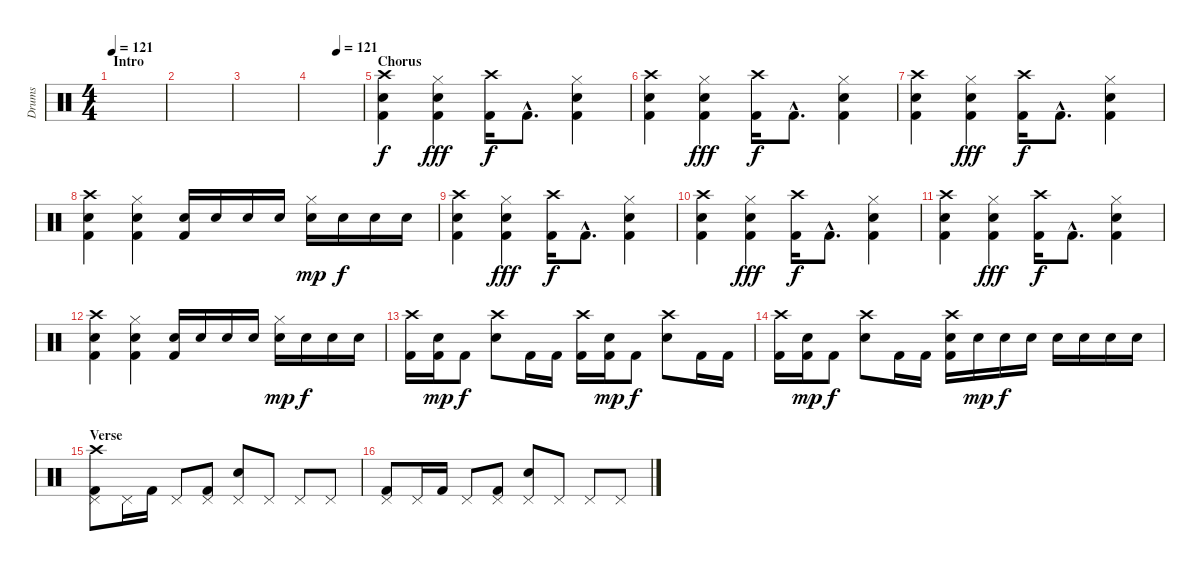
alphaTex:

\track ("Drums" "Drums") {instrument percussion}
\staff {score}
\articulation defaults
\ts (4 4)
\section ("" "Intro")
\tempo 121
\tempo 113
\tempo 121
\clef neutral
\ks c
|
|
|
\tempo (121 0.5)
|
\section ("" "Chorus")
("Crash high (hit)" "Snare (hit) 2" "Kick (hit) 2").4 ("Hi-Hat (closed)" "Snare (hit) 2" "Kick (hit) 2").4{dy fff} ("Crash high (hit)" "Kick (hit) 2").16{dy f} "Kick (hit) 2"{hac}.8{d} ("Hi-Hat (closed)" "Snare (hit) 2" "Kick (hit) 2").4 |
("Crash high (hit)" "Snare (hit) 2" "Kick (hit) 2").4 ("Hi-Hat (closed)" "Snare (hit) 2" "Kick (hit) 2").4{dy fff} ("Crash high (hit)" "Kick (hit) 2").16{dy f} "Kick (hit) 2"{hac}.8{d} ("Hi-Hat (closed)" "Snare (hit) 2" "Kick (hit) 2").4 |
("Crash high (hit)" "Snare (hit) 2" "Kick (hit) 2").4 ("Hi-Hat (closed)" "Snare (hit) 2" "Kick (hit) 2").4{dy fff} ("Crash high (hit)" "Kick (hit) 2").16{dy f} "Kick (hit) 2"{hac}.8{d} ("Hi-Hat (closed)" "Snare (hit) 2" "Kick (hit) 2").4 |
("Crash high (hit)" "Snare (hit) 2" "Kick (hit) 2").4 ("Hi-Hat (closed)" "Snare (hit) 2" "Kick (hit) 2").4 ("Snare (hit) 2" "Kick (hit) 2").16 "Snare (hit) 2".16 "Snare (hit) 2".16 "Snare (hit) 2".16 ("Hi-Hat (closed)" "Snare (hit) 2").16{dy mp} "Snare (hit) 2".16{dy f} "Snare (hit) 2".16 "Snare (hit) 2".16 |
("Crash high (hit)" "Snare (hit) 2" "Kick (hit) 2").4 ("Hi-Hat (closed)" "Snare (hit) 2" "Kick (hit) 2").4{dy fff} ("Crash high (hit)" "Kick (hit) 2").16{dy f} "Kick (hit) 2"{hac}.8{d} ("Hi-Hat (closed)" "Snare (hit) 2" "Kick (hit) 2").4 |
("Crash high (hit)" "Snare (hit) 2" "Kick (hit) 2").4 ("Hi-Hat (closed)" "Snare (hit) 2" "Kick (hit) 2").4{dy fff} ("Crash high (hit)" "Kick (hit) 2").16{dy f} "Kick (hit) 2"{hac}.8{d} ("Hi-Hat (closed)" "Snare (hit) 2" "Kick (hit) 2").4 |
("Crash high (hit)" "Snare (hit) 2" "Kick (hit) 2").4 ("Hi-Hat (closed)" "Snare (hit) 2" "Kick (hit) 2").4{dy fff} ("Crash high (hit)" "Kick (hit) 2").16{dy f} "Kick (hit) 2"{hac}.8{d} ("Hi-Hat (closed)" "Snare (hit) 2" "Kick (hit) 2").4 |
("Crash high (hit)" "Snare (hit) 2" "Kick (hit) 2").4 ("Hi-Hat (closed)" "Snare (hit) 2" "Kick (hit) 2").4 ("Snare (hit) 2" "Kick (hit) 2").16 "Snare (hit) 2".16 "Snare (hit) 2".16 "Snare (hit) 2".16 ("Hi-Hat (closed)" "Snare (hit) 2").16{dy mp} "Snare (hit) 2".16{dy f} "Snare (hit) 2".16 "Snare (hit) 2".16 |
("Crash high (hit)" "Kick (hit) 2").16 ("Snare (hit) 2" "Kick (hit) 2").16{dy mp} "Kick (hit) 2".8{dy f} ("Crash high (hit)" "Snare (hit) 2").8 "Kick (hit) 2".16 "Kick (hit) 2".16 ("Crash high (hit)" "Kick (hit) 2").16 ("Snare (hit) 2" "Kick (hit) 2").16{dy mp} "Kick (hit) 2".8{dy f} ("Crash high (hit)" "Snare (hit) 2").8 "Kick (hit) 2".16 "Kick (hit) 2".16 |
("Crash high (hit)" "Kick (hit) 2").16 ("Snare (hit) 2" "Kick (hit) 2").16{dy mp} "Kick (hit) 2".8{dy f} ("Crash high (hit)" "Snare (hit) 2").8 "Kick (hit) 2".16 "Kick (hit) 2".16 ("Crash high (hit)" "Snare (hit) 2" "Kick (hit) 2").16 "Snare (hit) 2".16{dy mp} "Snare (hit) 2".16{dy f} "Snare (hit) 2".16 "Snare (hit) 2".16 "Snare (hit) 2".16 "Snare (hit) 2".16 "Snare (hit) 2".16 |
\section ("" "Verse")
("Pedal Hi-Hat (hit)" "Crash high (hit)" "Kick (hit) 2").8 "Pedal Hi-Hat (hit)".16 "Kick (hit) 2".16 "Pedal Hi-Hat (hit)".8 ("Pedal Hi-Hat (hit)" "Kick (hit) 2").8 ("Pedal Hi-Hat (hit)" "Snare (hit) 2").8 "Pedal Hi-Hat (hit)".8 "Pedal Hi-Hat (hit)".8 "Pedal Hi-Hat (hit)".8 |
("Pedal Hi-Hat (hit)" "Kick (hit) 2").8 "Pedal Hi-Hat (hit)".16 "Kick (hit) 2".16 "Pedal Hi-Hat (hit)".8 ("Pedal Hi-Hat (hit)" "Kick (hit) 2").8 ("Pedal Hi-Hat (hit)" "Snare (hit) 2").8 "Pedal Hi-Hat (hit)".8 "Pedal Hi-Hat (hit)".8 "Pedal Hi-Hat (hit)".8
